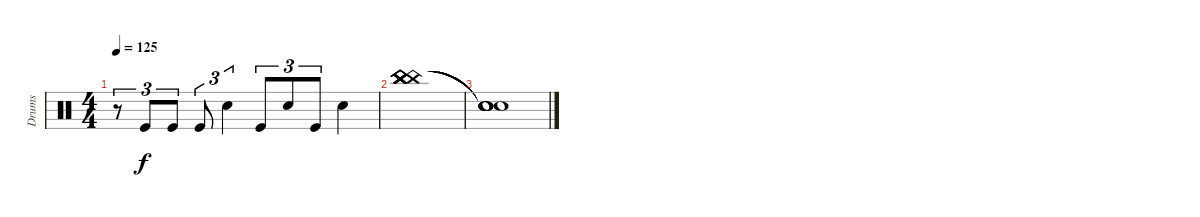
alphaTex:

\track ("Drums" "Drums") {instrument percussion}
\staff {score}
\articulation defaults
\ts (4 4)
\tempo 125
\clef neutral
\ks c
r.8{tu (3 2) dy f} "Kick (hit)".8{tu (3 2)} "Kick (hit)".8{tu (3 2)} "Kick (hit)".8{tu (3 2)} "Electric Snare (hit)".4{tu (3 2)} "Kick (hit)".8{tu (3 2)} "Electric Snare (hit)".8{tu (3 2)} "Kick (hit)".8{tu (3 2)} "Electric Snare (hit)".4 |
("China (hit)" "China (hit)" "China (hit)" "China (hit)" "China (hit)" "China (hit)").1 |
("Snare (hit)"{t} "Snare (hit)"{t} "Snare (hit)"{t} "Snare (hit)"{t} "Snare (hit)"{t}).1
